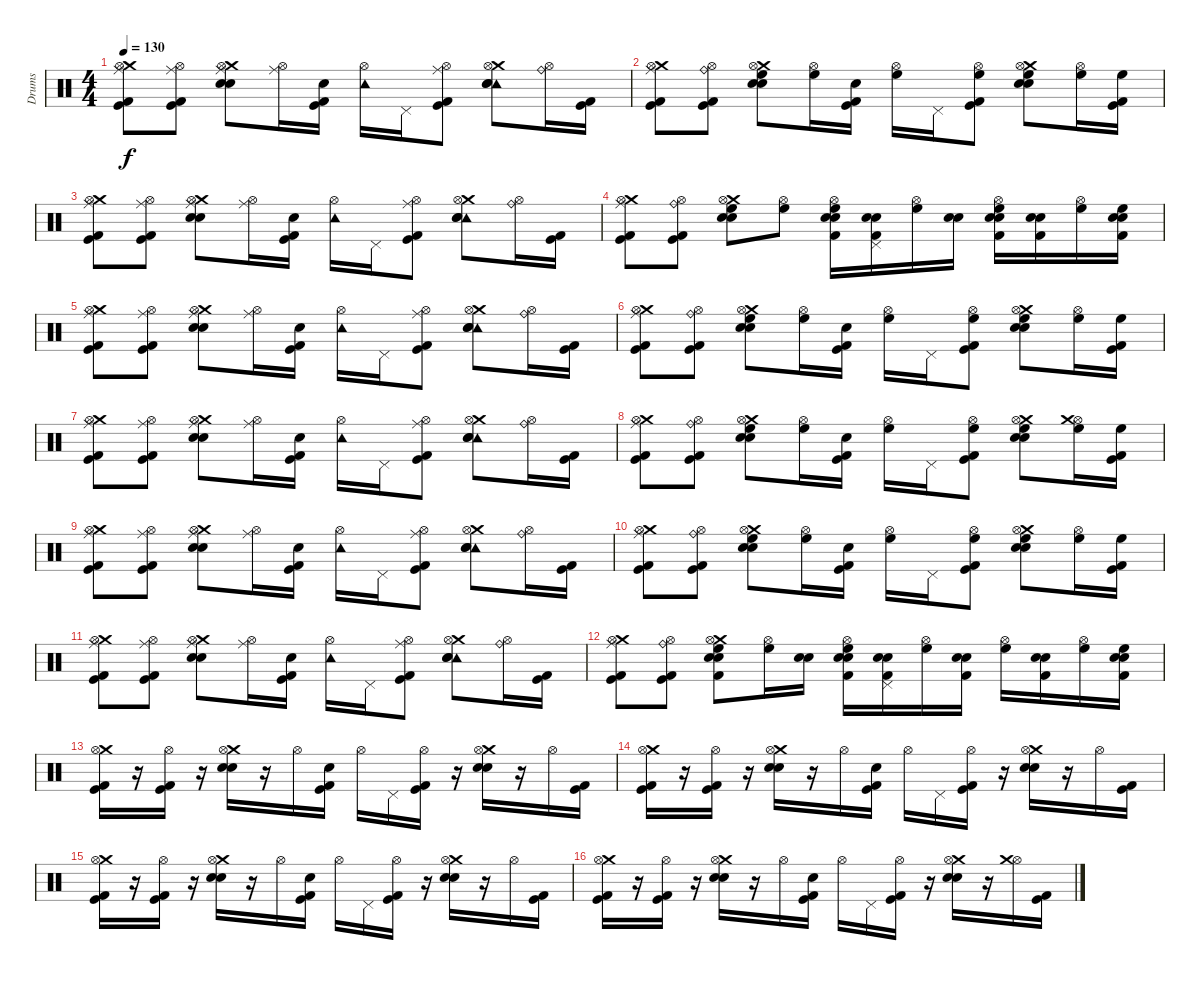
\track ("Drums" "Drums") {instrument percussion}
\staff {score}
\articulation defaults
\ts (4 4)
\tempo 130
\clef neutral
\ks c
("Ride (middle)" "Kick (hit) 2" "Kick (hit)" "Crash medium (hit)" "Hi-Hat (open)").8{dy f} ("Ride (middle)" "Kick (hit) 2" "Kick (hit)" "Hi-Hat (open)").8 ("Ride (middle)" "Snare (hit) 2" "Electric Snare (hit)" "Crash medium (hit)" "Hi-Hat (open)").8 ("Ride (middle)" "Hi-Hat (open)").16 ("Kick (hit) 2" "Kick (hit)" "Electric Snare (hit)").16 ("Tambourine (hit)" "Hi-Hat (open)").16 "Pedal Hi-Hat (hit)".16 ("Ride (middle)" "Kick (hit) 2" "Kick (hit)" "Hi-Hat (open)").8 ("Tambourine (hit)" "Snare (hit) 2" "Electric Snare (hit)" "Crash medium (hit)" "Hi-Hat (open)").8 ("Ride (bell)" "Hi-Hat (open)").16 ("Kick (hit) 2" "Kick (hit)").16 |
("Ride (middle)" "Kick (hit) 2" "Kick (hit)" "Crash medium (hit)" "Hi-Hat (open)").8 ("Ride (bell)" "Kick (hit) 2" "Kick (hit)" "Hi-Hat (open)").8 ("High Floor Tom (hit)" "Snare (hit) 2" "Electric Snare (hit)" "Crash medium (hit)" "Hi-Hat (open)").8 ("High Floor Tom (hit)" "Hi-Hat (open)").16 ("Kick (hit) 2" "Kick (hit)" "Electric Snare (hit)").16 ("High Floor Tom (hit)" "Hi-Hat (open)").16 "Pedal Hi-Hat (hit)".16 ("High Floor Tom (hit)" "Kick (hit) 2" "Kick (hit)" "Hi-Hat (open)").8 ("High Floor Tom (hit)" "Snare (hit) 2" "Electric Snare (hit)" "Crash medium (hit)" "Hi-Hat (open)").8 ("High Floor Tom (hit)" "Hi-Hat (open)").16 ("High Floor Tom (hit)" "Kick (hit) 2" "Kick (hit)").16 |
("Ride (middle)" "Kick (hit) 2" "Kick (hit)" "Crash medium (hit)" "Hi-Hat (open)").8 ("Ride (middle)" "Kick (hit) 2" "Kick (hit)" "Hi-Hat (open)").8 ("Ride (middle)" "Snare (hit) 2" "Electric Snare (hit)" "Crash medium (hit)" "Hi-Hat (open)").8 ("Ride (middle)" "Hi-Hat (open)").16 ("Kick (hit) 2" "Kick (hit)" "Electric Snare (hit)").16 ("Tambourine (hit)" "Hi-Hat (open)").16 "Pedal Hi-Hat (hit)".16 ("Ride (middle)" "Kick (hit) 2" "Kick (hit)" "Hi-Hat (open)").8 ("Tambourine (hit)" "Snare (hit) 2" "Electric Snare (hit)" "Crash medium (hit)" "Hi-Hat (open)").8 ("Ride (bell)" "Hi-Hat (open)").16 ("Kick (hit) 2" "Kick (hit)").16 |
("Ride (middle)" "Kick (hit) 2" "Kick (hit)" "Crash medium (hit)" "Hi-Hat (open)").8 ("Ride (bell)" "Kick (hit) 2" "Kick (hit)" "Hi-Hat (open)").8 ("High Floor Tom (hit)" "Snare (hit) 2" "Electric Snare (hit)" "Crash medium (hit)" "Hi-Hat (open)").8 ("High Floor Tom (hit)" "Hi-Hat (open)").8 ("High Floor Tom (hit)" "Hi-Hat (open)" "Electric Snare (hit)" "Snare (hit) 2" "Kick (hit) 2").16 ("Electric Snare (hit)" "Snare (hit) 2" "Kick (hit) 2" "Pedal Hi-Hat (hit)").16 ("High Floor Tom (hit)" "Hi-Hat (open)").16 ("Electric Snare (hit)" "Electric Snare (hit)").16 ("High Floor Tom (hit)" "Hi-Hat (open)" "Snare (hit) 2" "Electric Snare (hit)" "Kick (hit) 2").16 ("Electric Snare (hit)" "Snare (hit) 2" "Kick (hit) 2").16 ("High Floor Tom (hit)" "Hi-Hat (open)").16 ("High Floor Tom (hit)" "Electric Snare (hit)" "Snare (hit) 2" "Kick (hit) 2").16 |
("Ride (middle)" "Kick (hit) 2" "Kick (hit)" "Crash medium (hit)" "Hi-Hat (open)").8 ("Ride (middle)" "Kick (hit) 2" "Kick (hit)" "Hi-Hat (open)").8 ("Ride (middle)" "Snare (hit) 2" "Electric Snare (hit)" "Crash medium (hit)" "Hi-Hat (open)").8 ("Ride (middle)" "Hi-Hat (open)").16 ("Kick (hit) 2" "Kick (hit)" "Electric Snare (hit)").16 ("Tambourine (hit)" "Hi-Hat (open)").16 "Pedal Hi-Hat (hit)".16 ("Ride (middle)" "Kick (hit) 2" "Kick (hit)" "Hi-Hat (open)").8 ("Tambourine (hit)" "Snare (hit) 2" "Electric Snare (hit)" "Crash medium (hit)" "Hi-Hat (open)").8 ("Ride (bell)" "Hi-Hat (open)").16 ("Kick (hit) 2" "Kick (hit)").16 |
("Ride (middle)" "Kick (hit) 2" "Kick (hit)" "Crash medium (hit)" "Hi-Hat (open)").8 ("Ride (bell)" "Kick (hit) 2" "Kick (hit)" "Hi-Hat (open)").8 ("High Floor Tom (hit)" "Snare (hit) 2" "Electric Snare (hit)" "Crash medium (hit)" "Hi-Hat (open)").8 ("High Floor Tom (hit)" "Hi-Hat (open)").16 ("Kick (hit) 2" "Kick (hit)" "Electric Snare (hit)").16 ("High Floor Tom (hit)" "Hi-Hat (open)").16 "Pedal Hi-Hat (hit)".16 ("High Floor Tom (hit)" "Kick (hit) 2" "Kick (hit)" "Hi-Hat (open)").8 ("High Floor Tom (hit)" "Snare (hit) 2" "Electric Snare (hit)" "Crash medium (hit)" "Hi-Hat (open)").8 ("High Floor Tom (hit)" "Hi-Hat (open)").16 ("High Floor Tom (hit)" "Kick (hit) 2" "Kick (hit)").16 |
("Ride (middle)" "Kick (hit) 2" "Kick (hit)" "Crash medium (hit)" "Hi-Hat (open)").8 ("Ride (middle)" "Kick (hit) 2" "Kick (hit)" "Hi-Hat (open)").8 ("Ride (middle)" "Snare (hit) 2" "Electric Snare (hit)" "Crash medium (hit)" "Hi-Hat (open)").8 ("Ride (middle)" "Hi-Hat (open)").16 ("Kick (hit) 2" "Kick (hit)" "Electric Snare (hit)").16 ("Tambourine (hit)" "Hi-Hat (open)").16 "Pedal Hi-Hat (hit)".16 ("Ride (middle)" "Kick (hit) 2" "Kick (hit)" "Hi-Hat (open)").8 ("Tambourine (hit)" "Snare (hit) 2" "Electric Snare (hit)" "Crash medium (hit)" "Hi-Hat (open)").8 ("Ride (bell)" "Hi-Hat (open)").16 ("Kick (hit) 2" "Kick (hit)").16 |
("Ride (middle)" "Kick (hit) 2" "Kick (hit)" "Crash medium (hit)" "Hi-Hat (open)").8 ("Ride (bell)" "Kick (hit) 2" "Kick (hit)" "Hi-Hat (open)").8 ("High Floor Tom (hit)" "Snare (hit) 2" "Electric Snare (hit)" "Crash medium (hit)" "Hi-Hat (open)").8 ("High Floor Tom (hit)" "Hi-Hat (open)").16 ("Kick (hit) 2" "Kick (hit)" "Electric Snare (hit)").16 ("High Floor Tom (hit)" "Hi-Hat (open)").16 "Pedal Hi-Hat (hit)".16 ("High Floor Tom (hit)" "Kick (hit) 2" "Kick (hit)" "Hi-Hat (open)").8 ("High Floor Tom (hit)" "Snare (hit) 2" "Electric Snare (hit)" "Crash medium (hit)" "Hi-Hat (open)").8 ("High Floor Tom (hit)" "Hi-Hat (open)" "Crash medium (hit)").16 ("High Floor Tom (hit)" "Kick (hit) 2" "Kick (hit)").16 |
("Ride (middle)" "Kick (hit) 2" "Kick (hit)" "Crash medium (hit)" "Hi-Hat (open)").8 ("Ride (middle)" "Kick (hit) 2" "Kick (hit)" "Hi-Hat (open)").8 ("Ride (middle)" "Snare (hit) 2" "Electric Snare (hit)" "Crash medium (hit)" "Hi-Hat (open)").8 ("Ride (middle)" "Hi-Hat (open)").16 ("Kick (hit) 2" "Kick (hit)" "Electric Snare (hit)").16 ("Tambourine (hit)" "Hi-Hat (open)").16 "Pedal Hi-Hat (hit)".16 ("Ride (middle)" "Kick (hit) 2" "Kick (hit)" "Hi-Hat (open)").8 ("Tambourine (hit)" "Snare (hit) 2" "Electric Snare (hit)" "Crash medium (hit)" "Hi-Hat (open)").8 ("Ride (bell)" "Hi-Hat (open)").16 ("Kick (hit) 2" "Kick (hit)").16 |
("Ride (middle)" "Kick (hit) 2" "Kick (hit)" "Crash medium (hit)" "Hi-Hat (open)").8 ("Ride (bell)" "Kick (hit) 2" "Kick (hit)" "Hi-Hat (open)").8 ("High Floor Tom (hit)" "Snare (hit) 2" "Electric Snare (hit)" "Crash medium (hit)" "Hi-Hat (open)").8 ("High Floor Tom (hit)" "Hi-Hat (open)").16 ("Kick (hit) 2" "Kick (hit)" "Electric Snare (hit)").16 ("High Floor Tom (hit)" "Hi-Hat (open)").16 "Pedal Hi-Hat (hit)".16 ("High Floor Tom (hit)" "Kick (hit) 2" "Kick (hit)" "Hi-Hat (open)").8 ("High Floor Tom (hit)" "Snare (hit) 2" "Electric Snare (hit)" "Crash medium (hit)" "Hi-Hat (open)").8 ("High Floor Tom (hit)" "Hi-Hat (open)").16 ("High Floor Tom (hit)" "Kick (hit) 2" "Kick (hit)").16 |
("Ride (middle)" "Kick (hit) 2" "Kick (hit)" "Crash medium (hit)" "Hi-Hat (open)").8 ("Ride (middle)" "Kick (hit) 2" "Kick (hit)" "Hi-Hat (open)").8 ("Ride (middle)" "Snare (hit) 2" "Electric Snare (hit)" "Crash medium (hit)" "Hi-Hat (open)").8 ("Ride (middle)" "Hi-Hat (open)").16 ("Kick (hit) 2" "Kick (hit)" "Electric Snare (hit)").16 ("Tambourine (hit)" "Hi-Hat (open)").16 "Pedal Hi-Hat (hit)".16 ("Ride (middle)" "Kick (hit) 2" "Kick (hit)" "Hi-Hat (open)").8 ("Tambourine (hit)" "Snare (hit) 2" "Electric Snare (hit)" "Crash medium (hit)" "Hi-Hat (open)").8 ("Ride (bell)" "Hi-Hat (open)").16 ("Kick (hit) 2" "Kick (hit)").16 |
("Ride (middle)" "Kick (hit) 2" "Kick (hit)" "Crash medium (hit)" "Hi-Hat (open)").8 ("Ride (bell)" "Kick (hit) 2" "Kick (hit)" "Hi-Hat (open)").8 ("High Floor Tom (hit)" "Crash medium (hit)" "Hi-Hat (open)" "Electric Snare (hit)" "Snare (hit) 2" "Kick (hit) 2").8 ("High Floor Tom (hit)" "Hi-Hat (open)").16 ("Electric Snare (hit)" "Electric Snare (hit)").16 ("High Floor Tom (hit)" "Hi-Hat (open)" "Snare (hit) 2" "Electric Snare (hit)" "Kick (hit) 2").16 ("Pedal Hi-Hat (hit)" "Electric Snare (hit)" "Snare (hit) 2" "Kick (hit) 2").16 ("High Floor Tom (hit)" "Hi-Hat (open)").16 ("Electric Snare (hit)" "Snare (hit) 2" "Kick (hit) 2").16 ("High Floor Tom (hit)" "Hi-Hat (open)").16 ("Electric Snare (hit)" "Snare (hit) 2" "Kick (hit) 2").16 ("High Floor Tom (hit)" "Hi-Hat (open)").16 ("High Floor Tom (hit)" "Electric Snare (hit)" "Snare (hit) 2" "Kick (hit) 2").16 |
("Kick (hit) 2" "Kick (hit)" "Crash medium (hit)" "Hi-Hat (open)").16 r.16 ("Kick (hit) 2" "Kick (hit)" "Hi-Hat (open)").16 r.16 ("Snare (hit) 2" "Electric Snare (hit)" "Crash medium (hit)" "Hi-Hat (open)").16 r.16 "Hi-Hat (open)".16 ("Kick (hit) 2" "Kick (hit)" "Electric Snare (hit)").16 "Hi-Hat (open)".16 "Pedal Hi-Hat (hit)".16 ("Kick (hit) 2" "Kick (hit)" "Hi-Hat (open)").16 r.16 ("Snare (hit) 2" "Electric Snare (hit)" "Crash medium (hit)" "Hi-Hat (open)").16 r.16 "Hi-Hat (open)".16 ("Kick (hit) 2" "Kick (hit)").16 |
("Kick (hit) 2" "Kick (hit)" "Crash medium (hit)" "Hi-Hat (open)").16 r.16 ("Kick (hit) 2" "Kick (hit)" "Hi-Hat (open)").16 r.16 ("Snare (hit) 2" "Electric Snare (hit)" "Crash medium (hit)" "Hi-Hat (open)").16 r.16 "Hi-Hat (open)".16 ("Kick (hit) 2" "Kick (hit)" "Electric Snare (hit)").16 "Hi-Hat (open)".16 "Pedal Hi-Hat (hit)".16 ("Kick (hit) 2" "Kick (hit)" "Hi-Hat (open)").16 r.16 ("Snare (hit) 2" "Electric Snare (hit)" "Crash medium (hit)" "Hi-Hat (open)").16 r.16 "Hi-Hat (open)".16 ("Kick (hit) 2" "Kick (hit)").16 |
("Kick (hit) 2" "Kick (hit)" "Crash medium (hit)" "Hi-Hat (open)").16 r.16 ("Kick (hit) 2" "Kick (hit)" "Hi-Hat (open)").16 r.16 ("Snare (hit) 2" "Electric Snare (hit)" "Crash medium (hit)" "Hi-Hat (open)").16 r.16 "Hi-Hat (open)".16 ("Kick (hit) 2" "Kick (hit)" "Electric Snare (hit)").16 "Hi-Hat (open)".16 "Pedal Hi-Hat (hit)".16 ("Kick (hit) 2" "Kick (hit)" "Hi-Hat (open)").16 r.16 ("Snare (hit) 2" "Electric Snare (hit)" "Crash medium (hit)" "Hi-Hat (open)").16 r.16 "Hi-Hat (open)".16 ("Kick (hit) 2" "Kick (hit)").16 |
("Kick (hit) 2" "Kick (hit)" "Crash medium (hit)" "Hi-Hat (open)").16 r.16 ("Kick (hit) 2" "Kick (hit)" "Hi-Hat (open)").16 r.16 ("Snare (hit) 2" "Electric Snare (hit)" "Crash medium (hit)" "Hi-Hat (open)").16 r.16 "Hi-Hat (open)".16 ("Kick (hit) 2" "Kick (hit)" "Electric Snare (hit)").16 "Hi-Hat (open)".16 "Pedal Hi-Hat (hit)".16 ("Kick (hit) 2" "Kick (hit)" "Hi-Hat (open)").16 r.16 ("Snare (hit) 2" "Electric Snare (hit)" "Crash medium (hit)" "Hi-Hat (open)").16 r.16 ("Hi-Hat (open)" "Crash medium (hit)").16 ("Kick (hit) 2" "Kick (hit)").16
